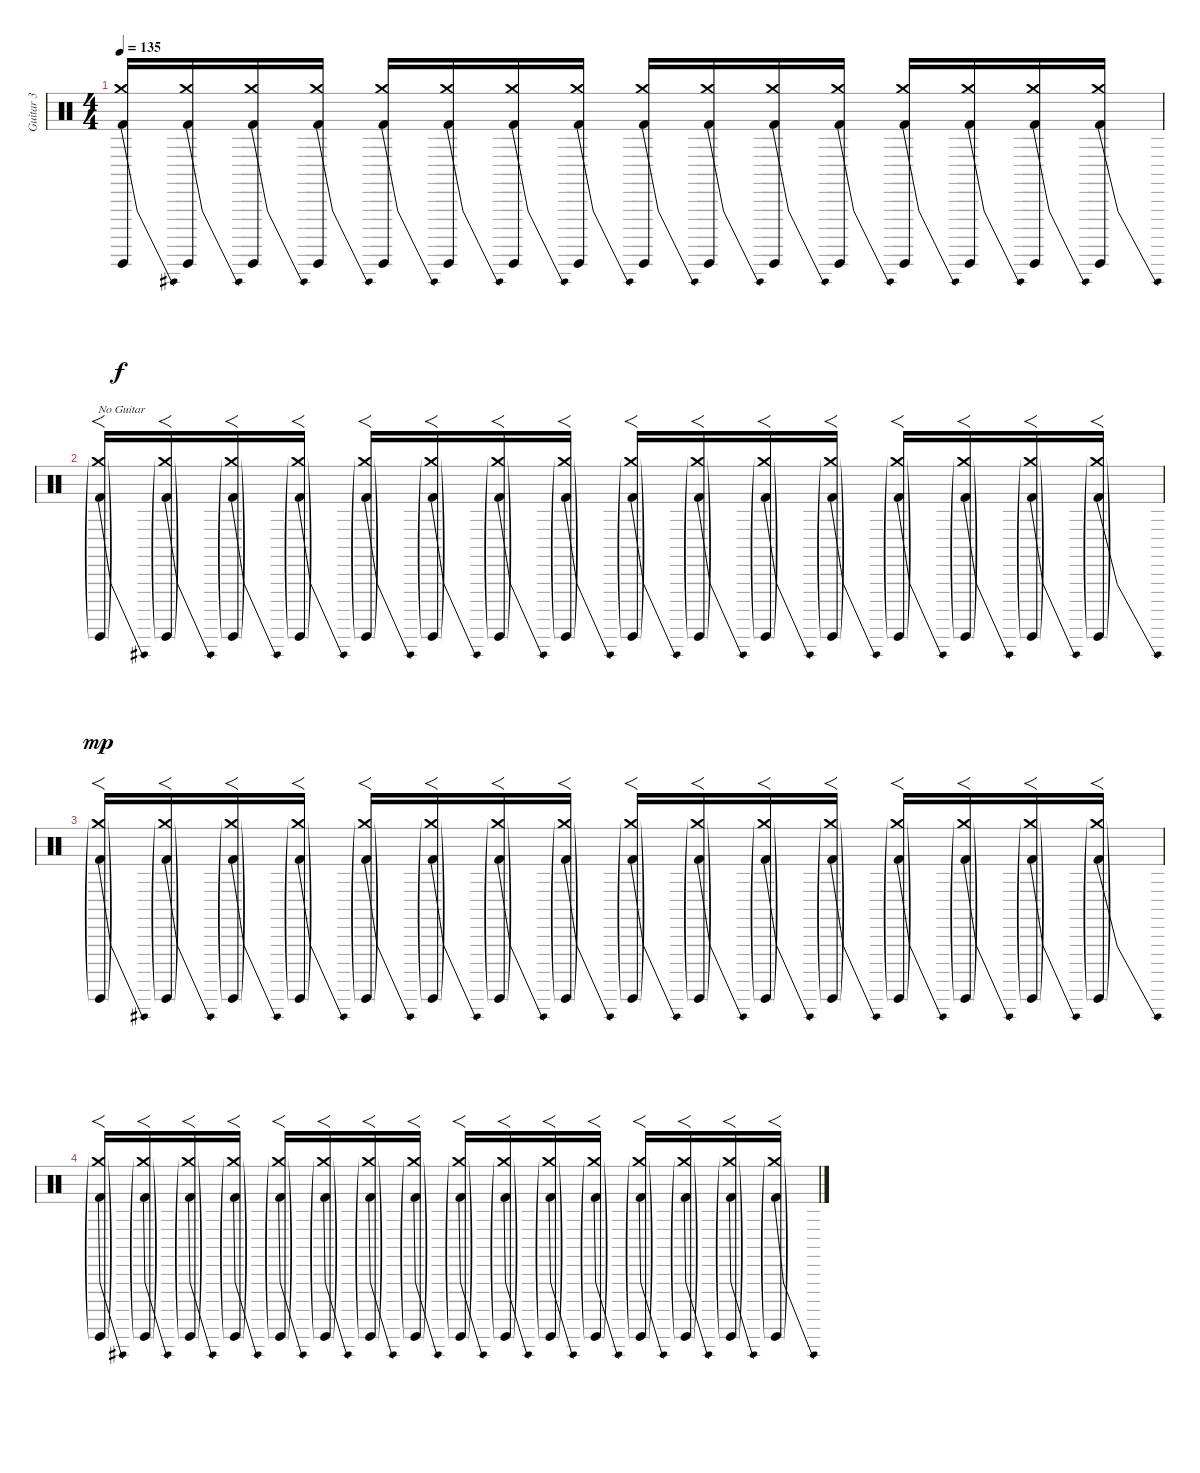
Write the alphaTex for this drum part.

\track ("Guitar 3" "Guitar 3") {instrument percussion}
\staff {score}
\articulation defaults
\ts (4 4)
\tempo 135
\clef neutral
\ks c
("Kick (hit) 2"{be (bend 0 0 60 12)} "Crash medium (hit)" "Guiro (hit)").16{dy f} ("Kick (hit) 2"{be (bend 0 0 60 12)} "Crash medium (hit)" "Guiro (hit)").16 ("Kick (hit) 2"{be (bend 0 0 60 12)} "Crash medium (hit)" "Guiro (hit)").16 ("Kick (hit) 2"{be (bend 0 0 60 12)} "Crash medium (hit)" "Guiro (hit)").16 ("Kick (hit) 2"{be (bend 0 0 60 12)} "Crash medium (hit)" "Guiro (hit)").16 ("Kick (hit) 2"{be (bend 0 0 60 12)} "Crash medium (hit)" "Guiro (hit)").16 ("Kick (hit) 2"{be (bend 0 0 60 12)} "Crash medium (hit)" "Guiro (hit)").16 ("Kick (hit) 2"{be (bend 0 0 60 12)} "Crash medium (hit)" "Guiro (hit)").16 ("Kick (hit) 2"{be (bend 0 0 60 12)} "Crash medium (hit)" "Guiro (hit)").16 ("Kick (hit) 2"{be (bend 0 0 60 12)} "Crash medium (hit)" "Guiro (hit)").16 ("Kick (hit) 2"{be (bend 0 0 60 12)} "Crash medium (hit)" "Guiro (hit)").16 ("Kick (hit) 2"{be (bend 0 0 60 12)} "Crash medium (hit)" "Guiro (hit)").16 ("Kick (hit) 2"{be (bend 0 0 60 12)} "Crash medium (hit)" "Guiro (hit)").16 ("Kick (hit) 2"{be (bend 0 0 60 12)} "Crash medium (hit)" "Guiro (hit)").16 ("Kick (hit) 2"{be (bend 0 0 60 12)} "Crash medium (hit)" "Guiro (hit)").16 ("Kick (hit) 2"{be (bend 0 0 60 12)} "Crash medium (hit)" "Guiro (hit)").16 |
("Kick (hit) 2"{be (bend 0 0 60 12) g} "Crash medium (hit)"{g} "Guiro (hit)"{g}).16{f txt "No Guitar" dy mp volume 12 balance 8} ("Kick (hit) 2"{be (bend 0 0 60 12) g} "Crash medium (hit)"{g} "Guiro (hit)"{g}).16{f} ("Kick (hit) 2"{be (bend 0 0 60 12) g} "Crash medium (hit)"{g} "Guiro (hit)"{g}).16{f} ("Kick (hit) 2"{be (bend 0 0 60 12) g} "Crash medium (hit)"{g} "Guiro (hit)"{g}).16{f} ("Kick (hit) 2"{be (bend 0 0 60 12) g} "Crash medium (hit)"{g} "Guiro (hit)"{g}).16{f} ("Kick (hit) 2"{be (bend 0 0 60 12) g} "Crash medium (hit)"{g} "Guiro (hit)"{g}).16{f} ("Kick (hit) 2"{be (bend 0 0 60 12) g} "Crash medium (hit)"{g} "Guiro (hit)"{g}).16{f} ("Kick (hit) 2"{be (bend 0 0 60 12) g} "Crash medium (hit)"{g} "Guiro (hit)"{g}).16{f} ("Kick (hit) 2"{be (bend 0 0 60 12) g} "Crash medium (hit)"{g} "Guiro (hit)"{g}).16{f} ("Kick (hit) 2"{be (bend 0 0 60 12) g} "Crash medium (hit)"{g} "Guiro (hit)"{g}).16{f} ("Kick (hit) 2"{be (bend 0 0 60 12) g} "Crash medium (hit)"{g} "Guiro (hit)"{g}).16{f} ("Kick (hit) 2"{be (bend 0 0 60 12) g} "Crash medium (hit)"{g} "Guiro (hit)"{g}).16{f} ("Kick (hit) 2"{be (bend 0 0 60 12) g} "Crash medium (hit)"{g} "Guiro (hit)"{g}).16{f} ("Kick (hit) 2"{be (bend 0 0 60 12) g} "Crash medium (hit)"{g} "Guiro (hit)"{g}).16{f} ("Kick (hit) 2"{be (bend 0 0 60 12) g} "Crash medium (hit)"{g} "Guiro (hit)"{g}).16{f} ("Kick (hit) 2"{be (bend 0 0 60 12) g} "Crash medium (hit)"{g} "Guiro (hit)"{g}).16{f} |
("Kick (hit) 2"{be (bend 0 0 60 12) g} "Crash medium (hit)"{g} "Guiro (hit)"{g}).16{f} ("Kick (hit) 2"{be (bend 0 0 60 12) g} "Crash medium (hit)"{g} "Guiro (hit)"{g}).16{f} ("Kick (hit) 2"{be (bend 0 0 60 12) g} "Crash medium (hit)"{g} "Guiro (hit)"{g}).16{f} ("Kick (hit) 2"{be (bend 0 0 60 12) g} "Crash medium (hit)"{g} "Guiro (hit)"{g}).16{f} ("Kick (hit) 2"{be (bend 0 0 60 12) g} "Crash medium (hit)"{g} "Guiro (hit)"{g}).16{f} ("Kick (hit) 2"{be (bend 0 0 60 12) g} "Crash medium (hit)"{g} "Guiro (hit)"{g}).16{f} ("Kick (hit) 2"{be (bend 0 0 60 12) g} "Crash medium (hit)"{g} "Guiro (hit)"{g}).16{f} ("Kick (hit) 2"{be (bend 0 0 60 12) g} "Crash medium (hit)"{g} "Guiro (hit)"{g}).16{f} ("Kick (hit) 2"{be (bend 0 0 60 12) g} "Crash medium (hit)"{g} "Guiro (hit)"{g}).16{f} ("Kick (hit) 2"{be (bend 0 0 60 12) g} "Crash medium (hit)"{g} "Guiro (hit)"{g}).16{f} ("Kick (hit) 2"{be (bend 0 0 60 12) g} "Crash medium (hit)"{g} "Guiro (hit)"{g}).16{f} ("Kick (hit) 2"{be (bend 0 0 60 12) g} "Crash medium (hit)"{g} "Guiro (hit)"{g}).16{f} ("Kick (hit) 2"{be (bend 0 0 60 12) g} "Crash medium (hit)"{g} "Guiro (hit)"{g}).16{f} ("Kick (hit) 2"{be (bend 0 0 60 12) g} "Crash medium (hit)"{g} "Guiro (hit)"{g}).16{f} ("Kick (hit) 2"{be (bend 0 0 60 12) g} "Crash medium (hit)"{g} "Guiro (hit)"{g}).16{f} ("Kick (hit) 2"{be (bend 0 0 60 12) g} "Crash medium (hit)"{g} "Guiro (hit)"{g}).16{f} |
("Kick (hit) 2"{be (bend 0 0 60 12) g} "Crash medium (hit)"{g} "Guiro (hit)"{g}).16{f} ("Kick (hit) 2"{be (bend 0 0 60 12) g} "Crash medium (hit)"{g} "Guiro (hit)"{g}).16{f} ("Kick (hit) 2"{be (bend 0 0 60 12) g} "Crash medium (hit)"{g} "Guiro (hit)"{g}).16{f} ("Kick (hit) 2"{be (bend 0 0 60 12) g} "Crash medium (hit)"{g} "Guiro (hit)"{g}).16{f} ("Kick (hit) 2"{be (bend 0 0 60 12) g} "Crash medium (hit)"{g} "Guiro (hit)"{g}).16{f} ("Kick (hit) 2"{be (bend 0 0 60 12) g} "Crash medium (hit)"{g} "Guiro (hit)"{g}).16{f} ("Kick (hit) 2"{be (bend 0 0 60 12) g} "Crash medium (hit)"{g} "Guiro (hit)"{g}).16{f} ("Kick (hit) 2"{be (bend 0 0 60 12) g} "Crash medium (hit)"{g} "Guiro (hit)"{g}).16{f} ("Kick (hit) 2"{be (bend 0 0 60 12) g} "Crash medium (hit)"{g} "Guiro (hit)"{g}).16{f} ("Kick (hit) 2"{be (bend 0 0 60 12) g} "Crash medium (hit)"{g} "Guiro (hit)"{g}).16{f} ("Kick (hit) 2"{be (bend 0 0 60 12) g} "Crash medium (hit)"{g} "Guiro (hit)"{g}).16{f} ("Kick (hit) 2"{be (bend 0 0 60 12) g} "Crash medium (hit)"{g} "Guiro (hit)"{g}).16{f} ("Kick (hit) 2"{be (bend 0 0 60 12) g} "Crash medium (hit)"{g} "Guiro (hit)"{g}).16{f} ("Kick (hit) 2"{be (bend 0 0 60 12) g} "Crash medium (hit)"{g} "Guiro (hit)"{g}).16{f} ("Kick (hit) 2"{be (bend 0 0 60 12) g} "Crash medium (hit)"{g} "Guiro (hit)"{g}).16{f} ("Kick (hit) 2"{be (bend 0 0 60 12) g} "Crash medium (hit)"{g} "Guiro (hit)"{g}).16{f}
